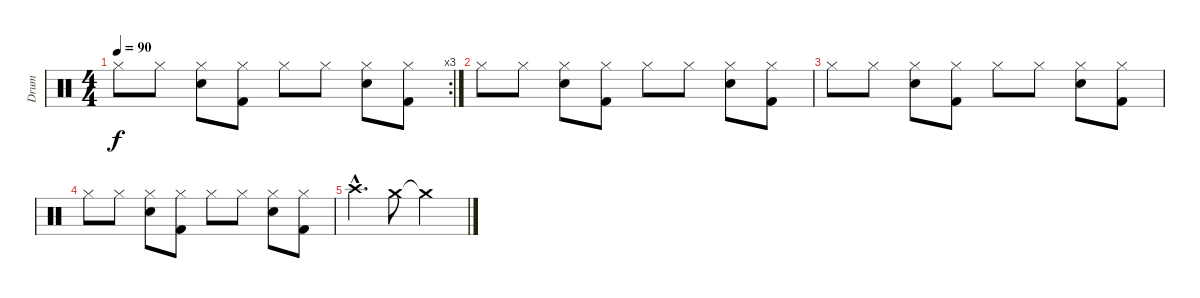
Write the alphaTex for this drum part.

\track ("Drum" "Drum") {instrument percussion}
\staff {score}
\articulation defaults
\rc 3
\ts (4 4)
\tempo 90
\clef neutral
\ks c "Hi-Hat (closed)".8{dy f} "Hi-Hat (closed)".8
("Hi-Hat (closed)" "Snare (hit) 2").8 ("Hi-Hat (closed)" "Kick (hit) 2").8 "Hi-Hat (closed)".8 "Hi-Hat (closed)".8 ("Hi-Hat (closed)" "Snare (hit) 2").8 ("Hi-Hat (closed)" "Kick (hit) 2").8 |
"Hi-Hat (closed)".8 "Hi-Hat (closed)".8 ("Hi-Hat (closed)" "Snare (hit) 2").8 ("Hi-Hat (closed)" "Kick (hit) 2").8 "Hi-Hat (closed)".8 "Hi-Hat (closed)".8 ("Hi-Hat (closed)" "Snare (hit) 2").8 ("Hi-Hat (closed)" "Kick (hit) 2").8 |
"Hi-Hat (closed)".8 "Hi-Hat (closed)".8 ("Hi-Hat (closed)" "Snare (hit) 2").8 ("Hi-Hat (closed)" "Kick (hit) 2").8 "Hi-Hat (closed)".8 "Hi-Hat (closed)".8 ("Hi-Hat (closed)" "Snare (hit) 2").8 ("Hi-Hat (closed)" "Kick (hit) 2").8 |
"Hi-Hat (closed)".8 "Hi-Hat (closed)".8 ("Hi-Hat (closed)" "Snare (hit) 2").8 ("Hi-Hat (closed)" "Kick (hit) 2").8 "Hi-Hat (closed)".8 "Hi-Hat (closed)".8 ("Hi-Hat (closed)" "Snare (hit) 2").8 ("Hi-Hat (closed)" "Kick (hit) 2").8 |
"Crash high (hit)"{hac}.4{d} "Crash medium (hit)".8 "Crash medium (hit)"{t}.2
